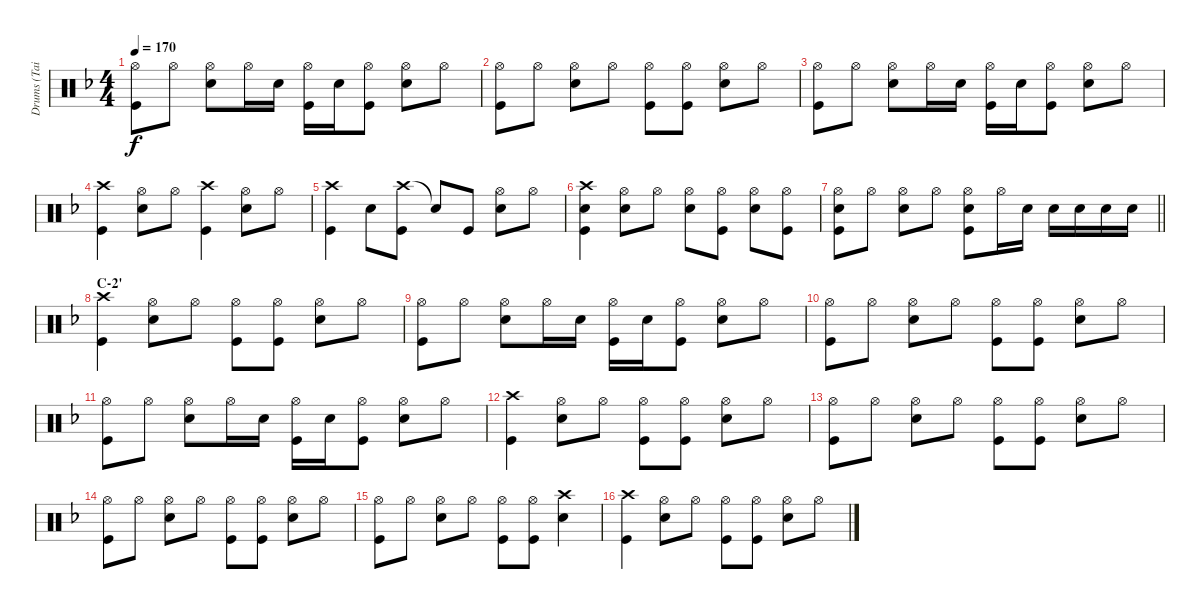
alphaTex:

\track ("Drums (Tainaka Ritsu)" "Drums (Tai") {instrument percussion}
\staff {score}
\articulation defaults
\ts (4 4)
\tempo 170
\clef neutral
\ks f
("Hi-Hat (open)" "Kick (hit)").8{dy f} "Hi-Hat (open)".8 ("Hi-Hat (open)" "Snare (hit) 2").8 "Hi-Hat (open)".16 "Snare (hit) 2".16 ("Hi-Hat (open)" "Kick (hit)").16 "Snare (hit) 2".16 ("Hi-Hat (open)" "Kick (hit)").8 ("Hi-Hat (open)" "Snare (hit) 2").8 "Hi-Hat (open)".8 |
("Hi-Hat (open)" "Kick (hit)").8 "Hi-Hat (open)".8 ("Hi-Hat (open)" "Snare (hit) 2").8 "Hi-Hat (open)".8 ("Hi-Hat (open)" "Kick (hit)").8 ("Hi-Hat (open)" "Kick (hit)").8 ("Hi-Hat (open)" "Snare (hit) 2").8 "Hi-Hat (open)".8 |
("Hi-Hat (open)" "Kick (hit)").8 "Hi-Hat (open)".8 ("Hi-Hat (open)" "Snare (hit) 2").8 "Hi-Hat (open)".16 "Snare (hit) 2".16 ("Hi-Hat (open)" "Kick (hit)").16 "Snare (hit) 2".16 ("Hi-Hat (open)" "Kick (hit)").8 ("Hi-Hat (open)" "Snare (hit) 2").8 "Hi-Hat (open)".8 |
("Crash high (hit)" "Kick (hit)").4 ("Hi-Hat (open)" "Snare (hit) 2").8 "Hi-Hat (open)".8 ("Crash high (hit)" "Kick (hit)").4 ("Hi-Hat (open)" "Snare (hit) 2").8 "Hi-Hat (open)".8 |
("Crash high (hit)" "Kick (hit)").4 "Snare (hit) 2".8 ("Crash high (hit)" "Kick (hit)").8 "Snare (hit)"{t}.8 "Kick (hit)".8 ("Hi-Hat (open)" "Snare (hit) 2").8 "Hi-Hat (open)".8 |
("Crash high (hit)" "Snare (hit) 2" "Kick (hit)").4 ("Hi-Hat (open)" "Snare (hit) 2").8 "Hi-Hat (open)".8 ("Hi-Hat (open)" "Snare (hit) 2").8 ("Hi-Hat (open)" "Kick (hit)").8 ("Hi-Hat (open)" "Snare (hit) 2").8 ("Hi-Hat (open)" "Kick (hit)").8 |
\barLineRight lightlight
("Hi-Hat (open)" "Snare (hit) 2" "Kick (hit)").8 "Hi-Hat (open)".8 ("Hi-Hat (open)" "Snare (hit) 2").8 "Hi-Hat (open)".8 ("Hi-Hat (open)" "Snare (hit) 2" "Kick (hit)").8 "Hi-Hat (open)".16 "Snare (hit) 2".16 "Snare (hit) 2".16 "Snare (hit) 2".16 "Snare (hit) 2".16 "Snare (hit) 2".16 |
\section ("" "C-2'")
("Crash high (hit)" "Kick (hit)").4 ("Hi-Hat (open)" "Snare (hit) 2").8 "Hi-Hat (open)".8 ("Hi-Hat (open)" "Kick (hit)").8 ("Hi-Hat (open)" "Kick (hit)").8 ("Hi-Hat (open)" "Snare (hit) 2").8 "Hi-Hat (open)".8 |
("Hi-Hat (open)" "Kick (hit)").8 "Hi-Hat (open)".8 ("Hi-Hat (open)" "Snare (hit) 2").8 "Hi-Hat (open)".16 "Snare (hit) 2".16 ("Hi-Hat (open)" "Kick (hit)").16 "Snare (hit) 2".16 ("Hi-Hat (open)" "Kick (hit)").8 ("Hi-Hat (open)" "Snare (hit) 2").8 "Hi-Hat (open)".8 |
("Hi-Hat (open)" "Kick (hit)").8 "Hi-Hat (open)".8 ("Hi-Hat (open)" "Snare (hit) 2").8 "Hi-Hat (open)".8 ("Hi-Hat (open)" "Kick (hit)").8 ("Hi-Hat (open)" "Kick (hit)").8 ("Hi-Hat (open)" "Snare (hit) 2").8 "Hi-Hat (open)".8 |
("Hi-Hat (open)" "Kick (hit)").8 "Hi-Hat (open)".8 ("Hi-Hat (open)" "Snare (hit) 2").8 "Hi-Hat (open)".16 "Snare (hit) 2".16 ("Hi-Hat (open)" "Kick (hit)").16 "Snare (hit) 2".16 ("Hi-Hat (open)" "Kick (hit)").8 ("Hi-Hat (open)" "Snare (hit) 2").8 "Hi-Hat (open)".8 |
("Crash high (hit)" "Kick (hit)").4 ("Hi-Hat (open)" "Snare (hit) 2").8 "Hi-Hat (open)".8 ("Hi-Hat (open)" "Kick (hit)").8 ("Hi-Hat (open)" "Kick (hit)").8 ("Hi-Hat (open)" "Snare (hit) 2").8 "Hi-Hat (open)".8 |
("Hi-Hat (open)" "Kick (hit)").8 "Hi-Hat (open)".8 ("Hi-Hat (open)" "Snare (hit) 2").8 "Hi-Hat (open)".8 ("Hi-Hat (open)" "Kick (hit)").8 ("Hi-Hat (open)" "Kick (hit)").8 ("Hi-Hat (open)" "Snare (hit) 2").8 "Hi-Hat (open)".8 |
("Hi-Hat (open)" "Kick (hit)").8 "Hi-Hat (open)".8 ("Hi-Hat (open)" "Snare (hit) 2").8 "Hi-Hat (open)".8 ("Hi-Hat (open)" "Kick (hit)").8 ("Hi-Hat (open)" "Kick (hit)").8 ("Hi-Hat (open)" "Snare (hit) 2").8 "Hi-Hat (open)".8 |
("Hi-Hat (open)" "Kick (hit)").8 "Hi-Hat (open)".8 ("Hi-Hat (open)" "Snare (hit) 2").8 "Hi-Hat (open)".8 ("Hi-Hat (open)" "Kick (hit)").8 ("Hi-Hat (open)" "Kick (hit)").8 ("Crash high (hit)" "Snare (hit) 2").4 |
("Crash high (hit)" "Kick (hit)").4 ("Hi-Hat (open)" "Snare (hit) 2").8 "Hi-Hat (open)".8 ("Hi-Hat (open)" "Kick (hit)").8 ("Hi-Hat (open)" "Kick (hit)").8 ("Hi-Hat (open)" "Snare (hit) 2").8 "Hi-Hat (open)".8
